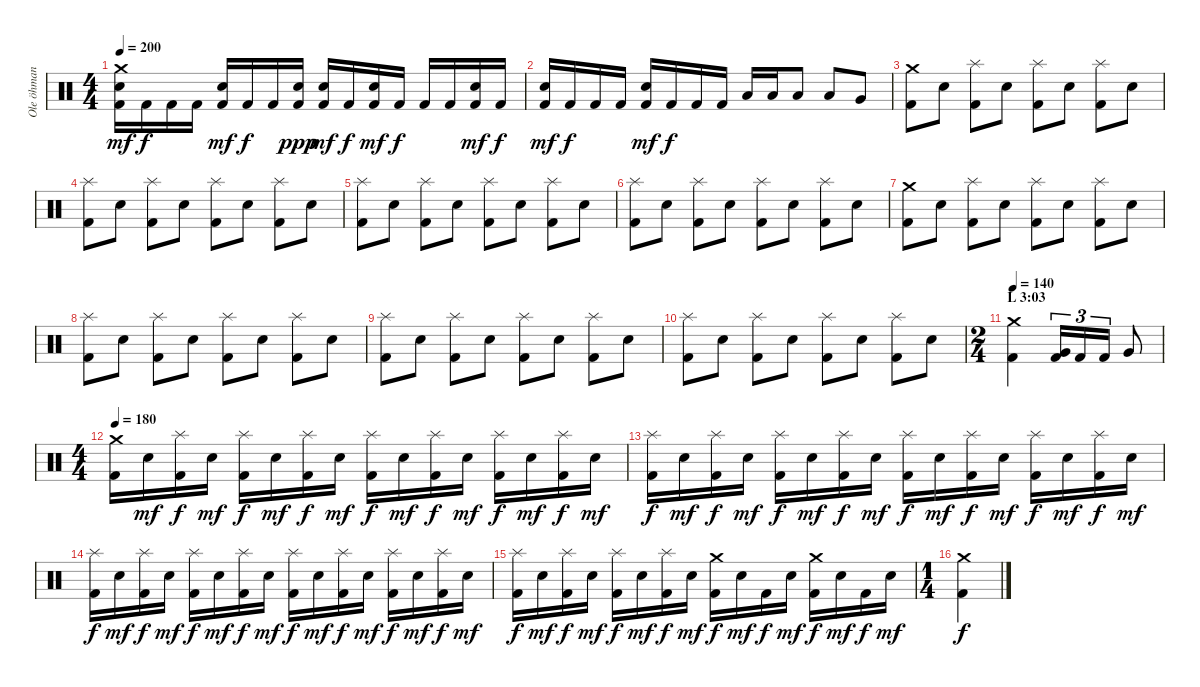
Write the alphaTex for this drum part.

\track ("Ole öhman" "Ole öhman") {instrument percussion}
\staff {score}
\articulation defaults
\ts (4 4)
\tempo 200
\clef neutral
\ks c
("Crash medium (hit)" "Electric Snare (hit)" "Kick (hit) 2").16{dy mf} "Kick (hit) 2".16{dy f} "Kick (hit) 2".16 "Kick (hit) 2".16 ("Electric Snare (hit)" "Kick (hit) 2").16{dy mf} "Kick (hit) 2".16{dy f} "Kick (hit) 2".16 ("Electric Snare (hit)" "Kick (hit) 2").16{dy ppp} ("Electric Snare (hit)" "Kick (hit) 2").16{dy mf} "Kick (hit) 2".16{dy f} ("Electric Snare (hit)" "Kick (hit) 2").16{dy mf} "Kick (hit) 2".16{dy f} "Kick (hit) 2".16 "Kick (hit) 2".16 ("Electric Snare (hit)" "Kick (hit) 2").16{dy mf} "Kick (hit) 2".16{dy f} |
("Electric Snare (hit)" "Kick (hit) 2").16{dy mf} "Kick (hit) 2".16{dy f} "Kick (hit) 2".16 "Kick (hit) 2".16 ("Electric Snare (hit)" "Kick (hit) 2").16{dy mf} "Kick (hit) 2".16{dy f} "Kick (hit) 2".16 "Kick (hit) 2".16 "Low Tom (hit)".16 "Low Tom (hit)".16 "Low Tom (hit)".8 "Low Tom (hit)".8 "Very Low Tom (hit)".8 |
("Crash medium (hit)" "Kick (hit) 2").8 "Electric Snare (hit)".8 ("Splash (hit)" "Kick (hit) 2").8 "Electric Snare (hit)".8 ("Splash (hit)" "Kick (hit) 2").8 "Electric Snare (hit)".8 ("Splash (hit)" "Kick (hit) 2").8 "Electric Snare (hit)".8 |
("Splash (hit)" "Kick (hit) 2").8 "Electric Snare (hit)".8 ("Splash (hit)" "Kick (hit) 2").8 "Electric Snare (hit)".8 ("Splash (hit)" "Kick (hit) 2").8 "Electric Snare (hit)".8 ("Splash (hit)" "Kick (hit) 2").8 "Electric Snare (hit)".8 |
("Splash (hit)" "Kick (hit) 2").8 "Electric Snare (hit)".8 ("Splash (hit)" "Kick (hit) 2").8 "Electric Snare (hit)".8 ("Splash (hit)" "Kick (hit) 2").8 "Electric Snare (hit)".8 ("Splash (hit)" "Kick (hit) 2").8 "Electric Snare (hit)".8 |
("Splash (hit)" "Kick (hit) 2").8 "Electric Snare (hit)".8 ("Splash (hit)" "Kick (hit) 2").8 "Electric Snare (hit)".8 ("Splash (hit)" "Kick (hit) 2").8 "Electric Snare (hit)".8 ("Splash (hit)" "Kick (hit) 2").8 "Electric Snare (hit)".8 |
("Crash medium (hit)" "Kick (hit) 2").8 "Electric Snare (hit)".8 ("Splash (hit)" "Kick (hit) 2").8 "Electric Snare (hit)".8 ("Splash (hit)" "Kick (hit) 2").8 "Electric Snare (hit)".8 ("Splash (hit)" "Kick (hit) 2").8 "Electric Snare (hit)".8 |
("Splash (hit)" "Kick (hit) 2").8 "Electric Snare (hit)".8 ("Splash (hit)" "Kick (hit) 2").8 "Electric Snare (hit)".8 ("Splash (hit)" "Kick (hit) 2").8 "Electric Snare (hit)".8 ("Splash (hit)" "Kick (hit) 2").8 "Electric Snare (hit)".8 |
("Splash (hit)" "Kick (hit) 2").8 "Electric Snare (hit)".8 ("Splash (hit)" "Kick (hit) 2").8 "Electric Snare (hit)".8 ("Splash (hit)" "Kick (hit) 2").8 "Electric Snare (hit)".8 ("Splash (hit)" "Kick (hit) 2").8 "Electric Snare (hit)".8 |
("Splash (hit)" "Kick (hit) 2").8 "Electric Snare (hit)".8 ("Splash (hit)" "Kick (hit) 2").8 "Electric Snare (hit)".8 ("Splash (hit)" "Kick (hit) 2").8 "Electric Snare (hit)".8 ("Splash (hit)" "Kick (hit) 2").8 "Electric Snare (hit)".8 |
\ts (2 4)
\section ("" "L 3:03")
\tempo 140
("Crash medium (hit)" "Kick (hit) 2").4 ("Very Low Tom (hit)" "Kick (hit) 2").16{tu (3 2)} "Kick (hit) 2".16{tu (3 2)} "Kick (hit) 2".16{tu (3 2)} "Very Low Tom (hit)".8 |
\ts (4 4)
\tempo 180
("Crash medium (hit)" "Kick (hit) 2").16 "Electric Snare (hit)".16{dy mf} ("Splash (hit)" "Kick (hit) 2").16{dy f} "Electric Snare (hit)".16{dy mf} ("Splash (hit)" "Kick (hit) 2").16{dy f} "Electric Snare (hit)".16{dy mf} ("Splash (hit)" "Kick (hit) 2").16{dy f} "Electric Snare (hit)".16{dy mf} ("Splash (hit)" "Kick (hit) 2").16{dy f} "Electric Snare (hit)".16{dy mf} ("Splash (hit)" "Kick (hit) 2").16{dy f} "Electric Snare (hit)".16{dy mf} ("Splash (hit)" "Kick (hit) 2").16{dy f} "Electric Snare (hit)".16{dy mf} ("Splash (hit)" "Kick (hit) 2").16{dy f} "Electric Snare (hit)".16{dy mf} |
("Splash (hit)" "Kick (hit) 2").16{dy f} "Electric Snare (hit)".16{dy mf} ("Splash (hit)" "Kick (hit) 2").16{dy f} "Electric Snare (hit)".16{dy mf} ("Splash (hit)" "Kick (hit) 2").16{dy f} "Electric Snare (hit)".16{dy mf} ("Splash (hit)" "Kick (hit) 2").16{dy f} "Electric Snare (hit)".16{dy mf} ("Splash (hit)" "Kick (hit) 2").16{dy f} "Electric Snare (hit)".16{dy mf} ("Splash (hit)" "Kick (hit) 2").16{dy f} "Electric Snare (hit)".16{dy mf} ("Splash (hit)" "Kick (hit) 2").16{dy f} "Electric Snare (hit)".16{dy mf} ("Splash (hit)" "Kick (hit) 2").16{dy f} "Electric Snare (hit)".16{dy mf} |
("Splash (hit)" "Kick (hit) 2").16{dy f} "Electric Snare (hit)".16{dy mf} ("Splash (hit)" "Kick (hit) 2").16{dy f} "Electric Snare (hit)".16{dy mf} ("Splash (hit)" "Kick (hit) 2").16{dy f} "Electric Snare (hit)".16{dy mf} ("Splash (hit)" "Kick (hit) 2").16{dy f} "Electric Snare (hit)".16{dy mf} ("Splash (hit)" "Kick (hit) 2").16{dy f} "Electric Snare (hit)".16{dy mf} ("Splash (hit)" "Kick (hit) 2").16{dy f} "Electric Snare (hit)".16{dy mf} ("Splash (hit)" "Kick (hit) 2").16{dy f} "Electric Snare (hit)".16{dy mf} ("Splash (hit)" "Kick (hit) 2").16{dy f} "Electric Snare (hit)".16{dy mf} |
("Splash (hit)" "Kick (hit) 2").16{dy f} "Electric Snare (hit)".16{dy mf} ("Splash (hit)" "Kick (hit) 2").16{dy f} "Electric Snare (hit)".16{dy mf} ("Splash (hit)" "Kick (hit) 2").16{dy f} "Electric Snare (hit)".16{dy mf} ("Splash (hit)" "Kick (hit) 2").16{dy f} "Electric Snare (hit)".16{dy mf} ("Crash medium (hit)" "Kick (hit) 2").16{dy f} "Electric Snare (hit)".16{dy mf} "Kick (hit) 2".16{dy f} "Electric Snare (hit)".16{dy mf} ("Crash medium (hit)" "Kick (hit) 2").16{dy f} "Electric Snare (hit)".16{dy mf} "Kick (hit) 2".16{dy f} "Electric Snare (hit)".16{dy mf} |
\ts (1 4)
("Crash medium (hit)" "Kick (hit) 2").4{dy f}
